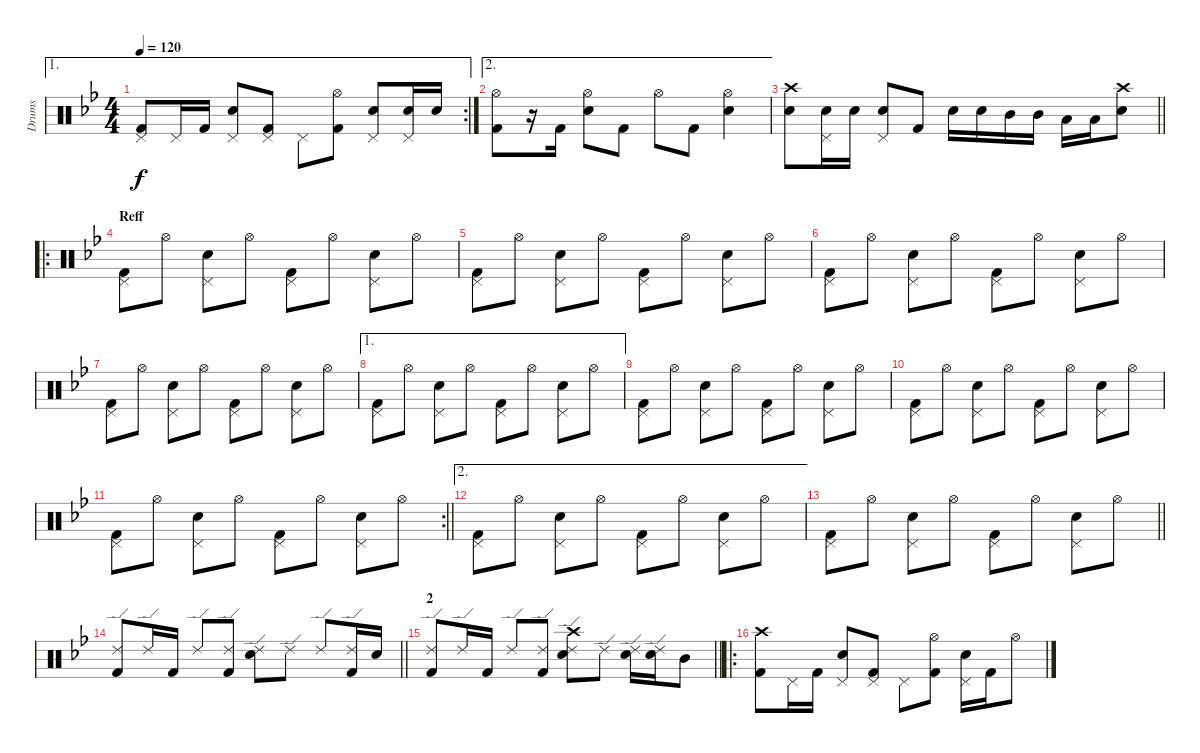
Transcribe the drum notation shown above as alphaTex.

\track ("Drums" "Drums") {instrument percussion}
\staff {score}
\articulation defaults
\ae 1
\rc 2
\ts (4 4)
\tempo 120
\clef neutral
\ks bb
("Kick (hit) 2" "Pedal Hi-Hat (hit)").8{dy f} "Pedal Hi-Hat (hit)".16 "Kick (hit) 2".16 ("Pedal Hi-Hat (hit)" "Electric Snare (hit)").8 ("Pedal Hi-Hat (hit)" "Kick (hit) 2").8 "Pedal Hi-Hat (hit)".8 ("Hi-Hat (open)" "Kick (hit) 2").8 ("Pedal Hi-Hat (hit)" "Electric Snare (hit)").8 ("Electric Snare (hit)" "Pedal Hi-Hat (hit)").16 "Electric Snare (hit)".16 |
\ae 2
("Kick (hit) 2" "Hi-Hat (open)").8 r.16 "Kick (hit) 2".16 ("Hi-Hat (open)" "Electric Snare (hit)").8 "Kick (hit) 2".8 "Hi-Hat (open)".8 "Kick (hit) 2".8 ("Hi-Hat (open)" "Electric Snare (hit)").4 |
\barLineRight lightlight
("Electric Snare (hit)" "Crash high (hit)").8 ("Electric Snare (hit)" "Pedal Hi-Hat (hit)").16 "Electric Snare (hit)".16 ("Electric Snare (hit)" "Pedal Hi-Hat (hit)").8 "Kick (hit) 2".8 "Electric Snare (hit)".16 "Electric Snare (hit)".16 "Mid Tom (hit)".16 "Mid Tom (hit)".16 "Low Tom (hit)".16 "Low Tom (hit)".16 ("Electric Snare (hit)" "Crash high (hit)").8 |
\ro
\section ("" "Reff")
("Pedal Hi-Hat (hit)" "Kick (hit) 2").8 "Hi-Hat (open)".8 ("Electric Snare (hit)" "Pedal Hi-Hat (hit)").8 "Hi-Hat (open)".8 ("Pedal Hi-Hat (hit)" "Kick (hit) 2").8 "Hi-Hat (open)".8 ("Electric Snare (hit)" "Pedal Hi-Hat (hit)").8 "Hi-Hat (open)".8 |
("Pedal Hi-Hat (hit)" "Kick (hit) 2").8 "Hi-Hat (open)".8 ("Electric Snare (hit)" "Pedal Hi-Hat (hit)").8 "Hi-Hat (open)".8 ("Pedal Hi-Hat (hit)" "Kick (hit) 2").8 "Hi-Hat (open)".8 ("Electric Snare (hit)" "Pedal Hi-Hat (hit)").8 "Hi-Hat (open)".8 |
("Pedal Hi-Hat (hit)" "Kick (hit) 2").8 "Hi-Hat (open)".8 ("Electric Snare (hit)" "Pedal Hi-Hat (hit)").8 "Hi-Hat (open)".8 ("Pedal Hi-Hat (hit)" "Kick (hit) 2").8 "Hi-Hat (open)".8 ("Electric Snare (hit)" "Pedal Hi-Hat (hit)").8 "Hi-Hat (open)".8 |
("Pedal Hi-Hat (hit)" "Kick (hit) 2").8 "Hi-Hat (open)".8 ("Electric Snare (hit)" "Pedal Hi-Hat (hit)").8 "Hi-Hat (open)".8 ("Pedal Hi-Hat (hit)" "Kick (hit) 2").8 "Hi-Hat (open)".8 ("Electric Snare (hit)" "Pedal Hi-Hat (hit)").8 "Hi-Hat (open)".8 |
\ae 1
("Pedal Hi-Hat (hit)" "Kick (hit) 2").8 "Hi-Hat (open)".8 ("Electric Snare (hit)" "Pedal Hi-Hat (hit)").8 "Hi-Hat (open)".8 ("Pedal Hi-Hat (hit)" "Kick (hit) 2").8 "Hi-Hat (open)".8 ("Electric Snare (hit)" "Pedal Hi-Hat (hit)").8 "Hi-Hat (open)".8 |
("Pedal Hi-Hat (hit)" "Kick (hit) 2").8 "Hi-Hat (open)".8 ("Electric Snare (hit)" "Pedal Hi-Hat (hit)").8 "Hi-Hat (open)".8 ("Pedal Hi-Hat (hit)" "Kick (hit) 2").8 "Hi-Hat (open)".8 ("Electric Snare (hit)" "Pedal Hi-Hat (hit)").8 "Hi-Hat (open)".8 |
("Pedal Hi-Hat (hit)" "Kick (hit) 2").8 "Hi-Hat (open)".8 ("Electric Snare (hit)" "Pedal Hi-Hat (hit)").8 "Hi-Hat (open)".8 ("Pedal Hi-Hat (hit)" "Kick (hit) 2").8 "Hi-Hat (open)".8 ("Electric Snare (hit)" "Pedal Hi-Hat (hit)").8 "Hi-Hat (open)".8 |
\rc 2
\barLineRight lightlight
("Pedal Hi-Hat (hit)" "Kick (hit) 2").8 "Hi-Hat (open)".8 ("Electric Snare (hit)" "Pedal Hi-Hat (hit)").8 "Hi-Hat (open)".8 ("Pedal Hi-Hat (hit)" "Kick (hit) 2").8 "Hi-Hat (open)".8 ("Electric Snare (hit)" "Pedal Hi-Hat (hit)").8 "Hi-Hat (open)".8 |
\ae 2
("Pedal Hi-Hat (hit)" "Kick (hit) 2").8 "Hi-Hat (open)".8 ("Electric Snare (hit)" "Pedal Hi-Hat (hit)").8 "Hi-Hat (open)".8 ("Pedal Hi-Hat (hit)" "Kick (hit) 2").8 "Hi-Hat (open)".8 ("Electric Snare (hit)" "Pedal Hi-Hat (hit)").8 "Hi-Hat (open)".8 |
\barLineRight lightlight
("Pedal Hi-Hat (hit)" "Kick (hit) 2").8 "Hi-Hat (open)".8 ("Electric Snare (hit)" "Pedal Hi-Hat (hit)").8 "Hi-Hat (open)".8 ("Pedal Hi-Hat (hit)" "Kick (hit) 2").8 "Hi-Hat (open)".8 ("Electric Snare (hit)" "Pedal Hi-Hat (hit)").8 "Hi-Hat (open)".8 |
\barLineRight lightlight
("Ride (edge) 2" "Kick (hit) 2").8 "Ride (edge) 2".16 "Kick (hit) 2".16 "Ride (edge) 2".8 ("Ride (edge) 2" "Kick (hit) 2").8 ("Ride (edge) 2" "Electric Snare (hit)").8 "Ride (edge) 2".8 "Ride (edge) 2".8 ("Ride (edge) 2" "Kick (hit) 2").16 "Electric Snare (hit)".16 |
\section ("" "2")
\barLineRight lightlight
("Ride (edge) 2" "Kick (hit) 2").8 "Ride (edge) 2".16 "Kick (hit) 2".16 "Ride (edge) 2".8 ("Ride (edge) 2" "Kick (hit) 2").8 ("Ride (edge) 2" "Electric Snare (hit)" "Crash high (hit)").8 "Ride (edge) 2".8 ("Ride (edge) 2" "Electric Snare (hit)").16 ("Ride (edge) 2" "Electric Snare (hit)").16 "Mid Tom (hit)".8 |
\ro
("Kick (hit) 2" "Crash high (hit)").8 "Pedal Hi-Hat (hit)".16 "Kick (hit) 2".16 ("Pedal Hi-Hat (hit)" "Electric Snare (hit)").8 ("Pedal Hi-Hat (hit)" "Kick (hit) 2").8 "Pedal Hi-Hat (hit)".8 ("Hi-Hat (open)" "Kick (hit) 2").8 ("Pedal Hi-Hat (hit)" "Electric Snare (hit)").16 "Kick (hit) 2".16 "Hi-Hat (open)".8
